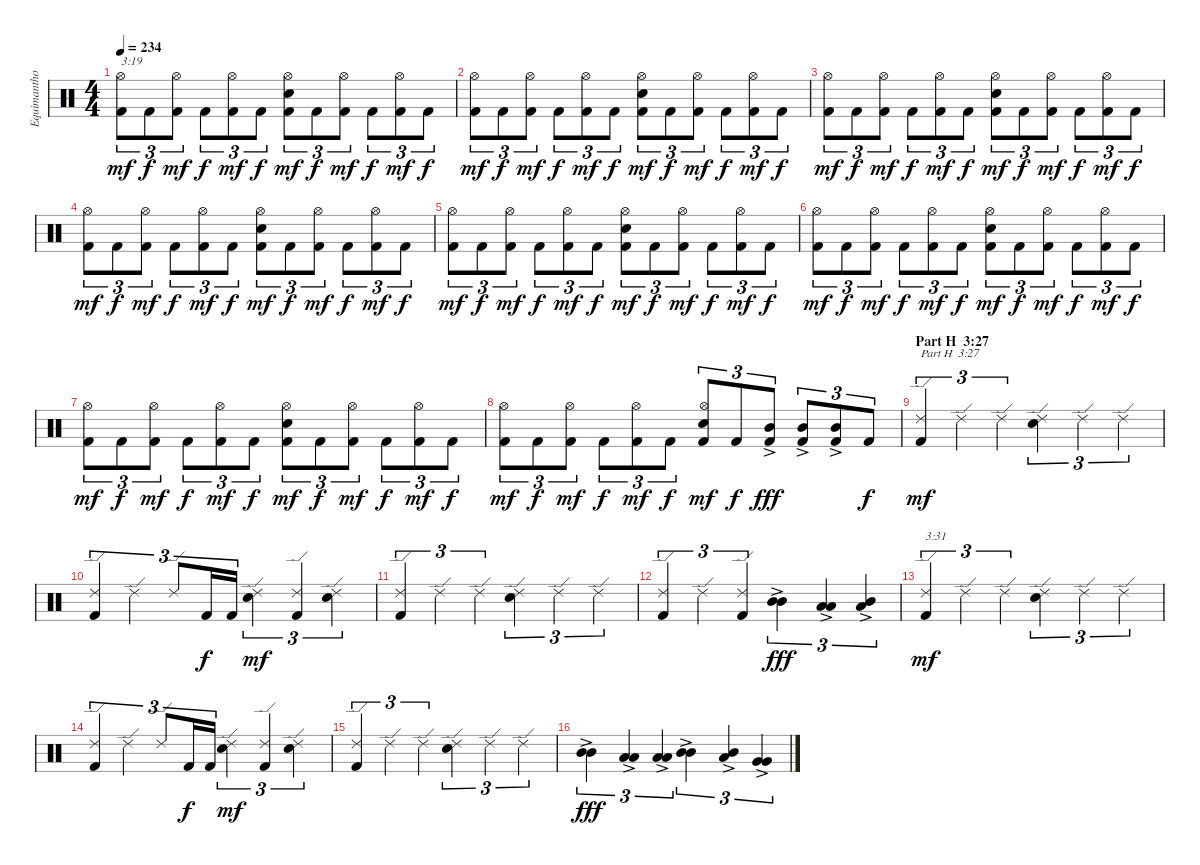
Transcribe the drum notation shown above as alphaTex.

\track ("Equimanthorn" "Equimantho") {instrument percussion}
\staff {score}
\articulation defaults
\ts (4 4)
\tempo 234
\clef neutral
\ks c
("Kick (hit) 2" "Hi-Hat (open)").8{tu (3 2) txt "3:19" dy mf} "Kick (hit) 2".8{tu (3 2) dy f} ("Kick (hit) 2" "Hi-Hat (open)").8{tu (3 2) dy mf} "Kick (hit) 2".8{tu (3 2) dy f} ("Kick (hit) 2" "Hi-Hat (open)").8{tu (3 2) dy mf} "Kick (hit) 2".8{tu (3 2) dy f} ("Kick (hit) 2" "Electric Snare (hit)" "Hi-Hat (open)").8{tu (3 2) dy mf} "Kick (hit) 2".8{tu (3 2) dy f} ("Kick (hit) 2" "Hi-Hat (open)").8{tu (3 2) dy mf} "Kick (hit) 2".8{tu (3 2) dy f} ("Kick (hit) 2" "Hi-Hat (open)").8{tu (3 2) dy mf} "Kick (hit) 2".8{tu (3 2) dy f} |
("Kick (hit) 2" "Hi-Hat (open)").8{tu (3 2) dy mf} "Kick (hit) 2".8{tu (3 2) dy f} ("Kick (hit) 2" "Hi-Hat (open)").8{tu (3 2) dy mf} "Kick (hit) 2".8{tu (3 2) dy f} ("Kick (hit) 2" "Hi-Hat (open)").8{tu (3 2) dy mf} "Kick (hit) 2".8{tu (3 2) dy f} ("Kick (hit) 2" "Electric Snare (hit)" "Hi-Hat (open)").8{tu (3 2) dy mf} "Kick (hit) 2".8{tu (3 2) dy f} ("Kick (hit) 2" "Hi-Hat (open)").8{tu (3 2) dy mf} "Kick (hit) 2".8{tu (3 2) dy f} ("Kick (hit) 2" "Hi-Hat (open)").8{tu (3 2) dy mf} "Kick (hit) 2".8{tu (3 2) dy f} |
("Kick (hit) 2" "Hi-Hat (open)").8{tu (3 2) dy mf} "Kick (hit) 2".8{tu (3 2) dy f} ("Kick (hit) 2" "Hi-Hat (open)").8{tu (3 2) dy mf} "Kick (hit) 2".8{tu (3 2) dy f} ("Kick (hit) 2" "Hi-Hat (open)").8{tu (3 2) dy mf} "Kick (hit) 2".8{tu (3 2) dy f} ("Kick (hit) 2" "Electric Snare (hit)" "Hi-Hat (open)").8{tu (3 2) dy mf} "Kick (hit) 2".8{tu (3 2) dy f} ("Kick (hit) 2" "Hi-Hat (open)").8{tu (3 2) dy mf} "Kick (hit) 2".8{tu (3 2) dy f} ("Kick (hit) 2" "Hi-Hat (open)").8{tu (3 2) dy mf} "Kick (hit) 2".8{tu (3 2) dy f} |
("Kick (hit) 2" "Hi-Hat (open)").8{tu (3 2) dy mf} "Kick (hit) 2".8{tu (3 2) dy f} ("Kick (hit) 2" "Hi-Hat (open)").8{tu (3 2) dy mf} "Kick (hit) 2".8{tu (3 2) dy f} ("Kick (hit) 2" "Hi-Hat (open)").8{tu (3 2) dy mf} "Kick (hit) 2".8{tu (3 2) dy f} ("Kick (hit) 2" "Electric Snare (hit)" "Hi-Hat (open)").8{tu (3 2) dy mf} "Kick (hit) 2".8{tu (3 2) dy f} ("Kick (hit) 2" "Hi-Hat (open)").8{tu (3 2) dy mf} "Kick (hit) 2".8{tu (3 2) dy f} ("Kick (hit) 2" "Hi-Hat (open)").8{tu (3 2) dy mf} "Kick (hit) 2".8{tu (3 2) dy f} |
("Kick (hit) 2" "Hi-Hat (open)").8{tu (3 2) dy mf} "Kick (hit) 2".8{tu (3 2) dy f} ("Kick (hit) 2" "Hi-Hat (open)").8{tu (3 2) dy mf} "Kick (hit) 2".8{tu (3 2) dy f} ("Kick (hit) 2" "Hi-Hat (open)").8{tu (3 2) dy mf} "Kick (hit) 2".8{tu (3 2) dy f} ("Kick (hit) 2" "Electric Snare (hit)" "Hi-Hat (open)").8{tu (3 2) dy mf} "Kick (hit) 2".8{tu (3 2) dy f} ("Kick (hit) 2" "Hi-Hat (open)").8{tu (3 2) dy mf} "Kick (hit) 2".8{tu (3 2) dy f} ("Kick (hit) 2" "Hi-Hat (open)").8{tu (3 2) dy mf} "Kick (hit) 2".8{tu (3 2) dy f} |
("Kick (hit) 2" "Hi-Hat (open)").8{tu (3 2) dy mf} "Kick (hit) 2".8{tu (3 2) dy f} ("Kick (hit) 2" "Hi-Hat (open)").8{tu (3 2) dy mf} "Kick (hit) 2".8{tu (3 2) dy f} ("Kick (hit) 2" "Hi-Hat (open)").8{tu (3 2) dy mf} "Kick (hit) 2".8{tu (3 2) dy f} ("Kick (hit) 2" "Electric Snare (hit)" "Hi-Hat (open)").8{tu (3 2) dy mf} "Kick (hit) 2".8{tu (3 2) dy f} ("Kick (hit) 2" "Hi-Hat (open)").8{tu (3 2) dy mf} "Kick (hit) 2".8{tu (3 2) dy f} ("Kick (hit) 2" "Hi-Hat (open)").8{tu (3 2) dy mf} "Kick (hit) 2".8{tu (3 2) dy f} |
("Kick (hit) 2" "Hi-Hat (open)").8{tu (3 2) dy mf} "Kick (hit) 2".8{tu (3 2) dy f} ("Kick (hit) 2" "Hi-Hat (open)").8{tu (3 2) dy mf} "Kick (hit) 2".8{tu (3 2) dy f} ("Kick (hit) 2" "Hi-Hat (open)").8{tu (3 2) dy mf} "Kick (hit) 2".8{tu (3 2) dy f} ("Kick (hit) 2" "Electric Snare (hit)" "Hi-Hat (open)").8{tu (3 2) dy mf} "Kick (hit) 2".8{tu (3 2) dy f} ("Kick (hit) 2" "Hi-Hat (open)").8{tu (3 2) dy mf} "Kick (hit) 2".8{tu (3 2) dy f} ("Kick (hit) 2" "Hi-Hat (open)").8{tu (3 2) dy mf} "Kick (hit) 2".8{tu (3 2) dy f} |
("Kick (hit) 2" "Hi-Hat (open)").8{tu (3 2) dy mf} "Kick (hit) 2".8{tu (3 2) dy f} ("Kick (hit) 2" "Hi-Hat (open)").8{tu (3 2) dy mf} "Kick (hit) 2".8{tu (3 2) dy f} ("Kick (hit) 2" "Hi-Hat (open)").8{tu (3 2) dy mf} "Kick (hit) 2".8{tu (3 2) dy f} ("Kick (hit) 2" "Electric Snare (hit)" "Hi-Hat (open)").8{tu (3 2) dy mf} "Kick (hit) 2".8{tu (3 2) dy f} ("Kick (hit) 2" "Mid Tom (hit)"{ac}).8{tu (3 2) dy fff} ("Kick (hit) 2" "Mid Tom (hit)"{ac}).8{tu (3 2)} ("Kick (hit) 2" "Mid Tom (hit)"{ac}).8{tu (3 2)} "Kick (hit) 2".8{tu (3 2) dy f} |
\section ("" "Part H  3:27")
("Kick (hit) 2" "Ride (edge) 2").4{tu (3 2) txt "Part H  3:27" dy mf} "Ride (edge) 2".4{tu (3 2)} "Ride (edge) 2".4{tu (3 2)} ("Electric Snare (hit)" "Ride (edge) 2").4{tu (3 2)} "Ride (edge) 2".4{tu (3 2)} "Ride (edge) 2".4{tu (3 2)} |
("Kick (hit) 2" "Ride (edge) 2").4{tu (3 2)} "Ride (edge) 2".4{tu (3 2)} "Ride (edge) 2".8{tu (3 2)} "Kick (hit) 2".16{tu (3 2) dy f} "Kick (hit) 2".16{tu (3 2)} ("Electric Snare (hit)" "Ride (edge) 2").4{tu (3 2) dy mf} ("Kick (hit) 2" "Ride (edge) 2").4{tu (3 2)} ("Electric Snare (hit)" "Ride (edge) 2").4{tu (3 2)} |
("Kick (hit) 2" "Ride (edge) 2").4{tu (3 2)} "Ride (edge) 2".4{tu (3 2)} "Ride (edge) 2".4{tu (3 2)} ("Electric Snare (hit)" "Ride (edge) 2").4{tu (3 2)} "Ride (edge) 2".4{tu (3 2)} "Ride (edge) 2".4{tu (3 2)} |
("Kick (hit) 2" "Ride (edge) 2").4{tu (3 2)} "Ride (edge) 2".4{tu (3 2)} ("Kick (hit) 2" "Ride (edge) 2").4{tu (3 2)} ("Mid Tom (hit)"{ac} "Mid Tom (hit)"{ac}).4{tu (3 2) dy fff} ("Low Tom (hit)"{ac} "Low Tom (hit)"{ac}).4{tu (3 2)} ("Low Tom (hit)"{ac} "Mid Tom (hit)"{ac}).4{tu (3 2)} |
("Kick (hit) 2" "Ride (edge) 2").4{tu (3 2) txt "3:31" dy mf} "Ride (edge) 2".4{tu (3 2)} "Ride (edge) 2".4{tu (3 2)} ("Electric Snare (hit)" "Ride (edge) 2").4{tu (3 2)} "Ride (edge) 2".4{tu (3 2)} "Ride (edge) 2".4{tu (3 2)} |
("Kick (hit) 2" "Ride (edge) 2").4{tu (3 2)} "Ride (edge) 2".4{tu (3 2)} "Ride (edge) 2".8{tu (3 2)} "Kick (hit) 2".16{tu (3 2) dy f} "Kick (hit) 2".16{tu (3 2)} ("Electric Snare (hit)" "Ride (edge) 2").4{tu (3 2) dy mf} ("Kick (hit) 2" "Ride (edge) 2").4{tu (3 2)} ("Electric Snare (hit)" "Ride (edge) 2").4{tu (3 2)} |
("Kick (hit) 2" "Ride (edge) 2").4{tu (3 2)} "Ride (edge) 2".4{tu (3 2)} "Ride (edge) 2".4{tu (3 2)} ("Electric Snare (hit)" "Ride (edge) 2").4{tu (3 2)} "Ride (edge) 2".4{tu (3 2)} "Ride (edge) 2".4{tu (3 2)} |
("Mid Tom (hit)"{ac} "Mid Tom (hit)"{ac}).4{tu (3 2) dy fff} ("Low Tom (hit)"{ac} "Low Tom (hit)"{ac}).4{tu (3 2)} ("Low Tom (hit)"{ac} "Low Tom (hit)"{ac}).4{tu (3 2)} ("Mid Tom (hit)"{ac} "Mid Tom (hit)"{ac}).4{tu (3 2)} ("Low Tom (hit)"{ac} "Mid Tom (hit)"{ac}).4{tu (3 2)} ("Very Low Tom (hit)"{ac} "Very Low Tom (hit)"{ac}).4{tu (3 2)}
